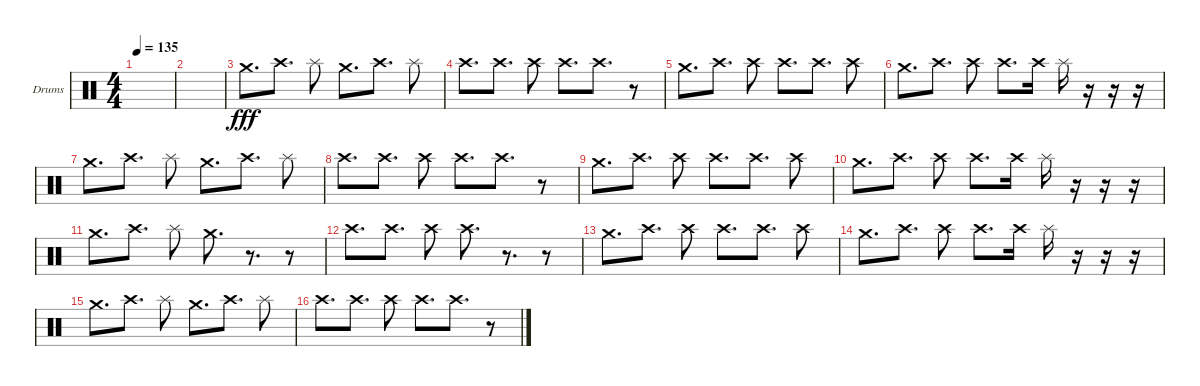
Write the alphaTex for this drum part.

\defaultSystemsLayout 4
\bracketExtendMode groupsimilarinstruments
\firstSystemTrackNameOrientation horizontal
\otherSystemsTrackNameOrientation horizontal
\track ("Matt Helders" "Drums") {instrument percussion}
\staff {score}
\articulation defaults
\ts (4 4)
\tempo 135
\clef neutral
\ks c
|
|
"Crash medium (hit)".8{d dy fff} "Crash high (hit)".8{d} "Splash (hit)".8 "Crash medium (hit)".8{d} "Crash high (hit)".8{d} "Splash (hit)".8 |
"Crash high (hit)".8{d} "Crash high (hit)".8{d} "Crash high (hit)".8 "Crash high (hit)".8{d} "Crash high (hit)".8{d} r.8 |
"Crash medium (hit)".8{d} "Crash high (hit)".8{d} "Crash high (hit)".8 "Crash high (hit)".8{d} "Crash high (hit)".8{d} "Crash high (hit)".8 |
"Crash medium (hit)".8{d} "Crash high (hit)".8{d} "Crash high (hit)".8 "Crash high (hit)".8{d} "Crash high (hit)".16 "Splash (hit)".16 r.16 r.16 r.16 |
"Crash medium (hit)".8{d} "Crash high (hit)".8{d} "Splash (hit)".8 "Crash medium (hit)".8{d} "Crash high (hit)".8{d} "Splash (hit)".8 |
"Crash high (hit)".8{d} "Crash high (hit)".8{d} "Crash high (hit)".8 "Crash high (hit)".8{d} "Crash high (hit)".8{d} r.8 |
"Crash medium (hit)".8{d} "Crash high (hit)".8{d} "Crash high (hit)".8 "Crash high (hit)".8{d} "Crash high (hit)".8{d} "Crash high (hit)".8 |
"Crash medium (hit)".8{d} "Crash high (hit)".8{d} "Crash high (hit)".8 "Crash high (hit)".8{d} "Crash high (hit)".16 "Splash (hit)".16 r.16 r.16 r.16 |
"Crash medium (hit)".8{d} "Crash high (hit)".8{d} "Splash (hit)".8 "Crash medium (hit)".8{d} r.8{d} r.8 |
"Crash high (hit)".8{d} "Crash high (hit)".8{d} "Crash high (hit)".8 "Crash high (hit)".8{d} r.8{d} r.8 |
"Crash medium (hit)".8{d} "Crash high (hit)".8{d} "Crash high (hit)".8 "Crash high (hit)".8{d} "Crash high (hit)".8{d} "Crash high (hit)".8 |
"Crash medium (hit)".8{d} "Crash high (hit)".8{d} "Crash high (hit)".8 "Crash high (hit)".8{d} "Crash high (hit)".16 "Splash (hit)".16 r.16 r.16 r.16 |
"Crash medium (hit)".8{d} "Crash high (hit)".8{d} "Splash (hit)".8 "Crash medium (hit)".8{d} "Crash high (hit)".8{d} "Splash (hit)".8 |
"Crash high (hit)".8{d} "Crash high (hit)".8{d} "Crash high (hit)".8 "Crash high (hit)".8{d} "Crash high (hit)".8{d} r.8
